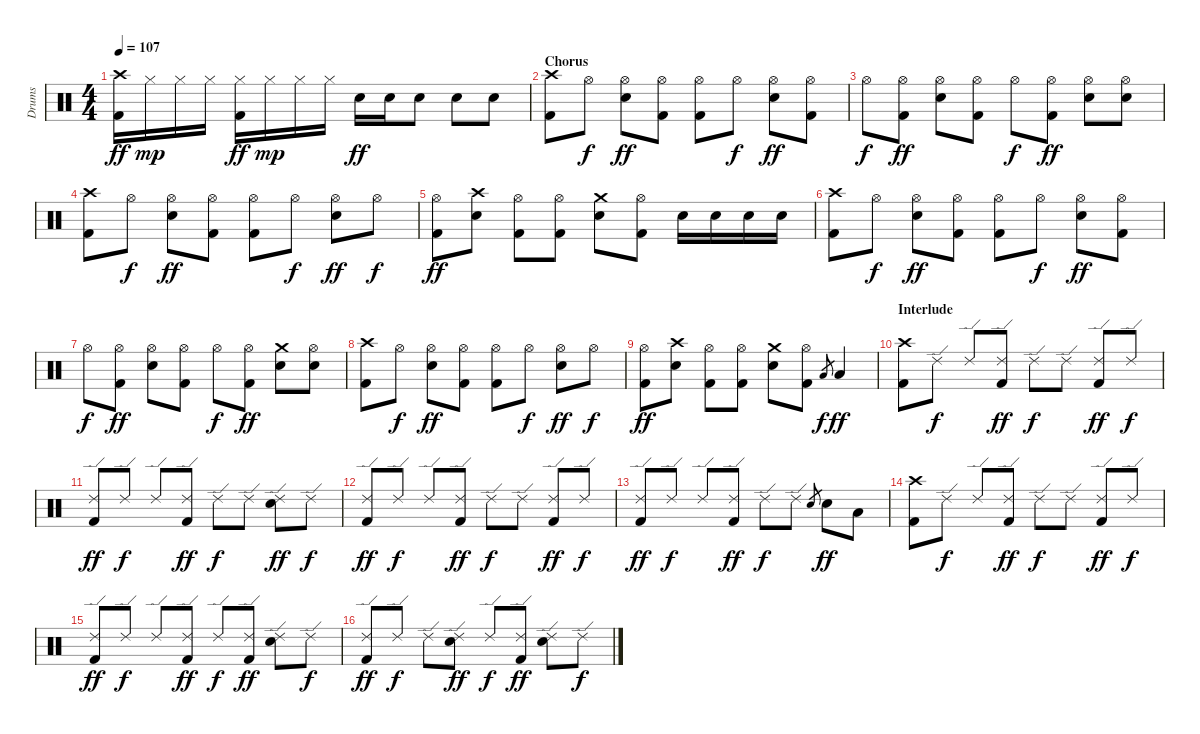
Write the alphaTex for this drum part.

\track ("Drums" "Drums") {instrument percussion}
\staff {score}
\articulation defaults
\ts (4 4)
\tempo 107
\clef neutral
\ks c
("Crash high (hit)" "Kick (hit) 2").16{dy ff} "Hi-Hat (closed)".16{dy mp} "Hi-Hat (closed)".16 "Hi-Hat (closed)".16 ("Hi-Hat (closed)" "Kick (hit) 2").16{dy ff} "Hi-Hat (closed)".16{dy mp} "Hi-Hat (closed)".16 "Hi-Hat (closed)".16 "Snare (hit) 2".16{dy ff} "Snare (hit) 2".16 "Snare (hit) 2".8 "Snare (hit) 2".8 "Snare (hit) 2".8 |
\section ("" "Chorus")
("Crash high (hit)" "Kick (hit) 2").8 "Hi-Hat (open)".8{dy f} ("Hi-Hat (open)" "Snare (hit) 2").8{dy ff} ("Hi-Hat (open)" "Kick (hit) 2").8 ("Hi-Hat (open)" "Kick (hit) 2").8 "Hi-Hat (open)".8{dy f} ("Hi-Hat (open)" "Snare (hit) 2").8{dy ff} ("Hi-Hat (open)" "Kick (hit) 2").8 |
"Hi-Hat (open)".8{dy f} ("Hi-Hat (open)" "Kick (hit) 2").8{dy ff} ("Hi-Hat (open)" "Snare (hit) 2").8 ("Hi-Hat (open)" "Kick (hit) 2").8 "Hi-Hat (open)".8{dy f} ("Hi-Hat (open)" "Kick (hit) 2").8{dy ff} ("Hi-Hat (open)" "Snare (hit) 2").8 ("Hi-Hat (open)" "Snare (hit) 2").8 |
("Crash high (hit)" "Kick (hit) 2").8 "Hi-Hat (open)".8{dy f} ("Hi-Hat (open)" "Snare (hit) 2").8{dy ff} ("Hi-Hat (open)" "Kick (hit) 2").8 ("Hi-Hat (open)" "Kick (hit) 2").8 "Hi-Hat (open)".8{dy f} ("Hi-Hat (open)" "Snare (hit) 2").8{dy ff} "Hi-Hat (open)".8{dy f} |
("Hi-Hat (open)" "Kick (hit) 2").8{dy ff} ("Crash high (hit)" "Snare (hit) 2").8 ("Hi-Hat (open)" "Kick (hit) 2").8 ("Hi-Hat (open)" "Kick (hit) 2").8 ("Crash medium (hit)" "Snare (hit) 2").8 ("Hi-Hat (open)" "Kick (hit) 2").8 "Snare (hit) 2".16 "Snare (hit) 2".16 "Snare (hit) 2".16 "Snare (hit) 2".16 |
("Crash high (hit)" "Kick (hit) 2").8 "Hi-Hat (open)".8{dy f} ("Hi-Hat (open)" "Snare (hit) 2").8{dy ff} ("Hi-Hat (open)" "Kick (hit) 2").8 ("Hi-Hat (open)" "Kick (hit) 2").8 "Hi-Hat (open)".8{dy f} ("Hi-Hat (open)" "Snare (hit) 2").8{dy ff} ("Hi-Hat (open)" "Kick (hit) 2").8 |
"Hi-Hat (open)".8{dy f} ("Hi-Hat (open)" "Kick (hit) 2").8{dy ff} ("Hi-Hat (open)" "Snare (hit) 2").8 ("Hi-Hat (open)" "Kick (hit) 2").8 "Hi-Hat (open)".8{dy f} ("Hi-Hat (open)" "Kick (hit) 2").8{dy ff} ("Crash medium (hit)" "Snare (hit) 2").8 ("Hi-Hat (open)" "Snare (hit) 2").8 |
("Crash high (hit)" "Kick (hit) 2").8 "Hi-Hat (open)".8{dy f} ("Hi-Hat (open)" "Snare (hit) 2").8{dy ff} ("Hi-Hat (open)" "Kick (hit) 2").8 ("Hi-Hat (open)" "Kick (hit) 2").8 "Hi-Hat (open)".8{dy f} ("Hi-Hat (open)" "Snare (hit) 2").8{dy ff} "Hi-Hat (open)".8{dy f} |
("Hi-Hat (open)" "Kick (hit) 2").8{dy ff} ("Crash high (hit)" "Snare (hit) 2").8 ("Hi-Hat (open)" "Kick (hit) 2").8 ("Hi-Hat (open)" "Kick (hit) 2").8 ("Crash medium (hit)" "Snare (hit) 2").8 ("Hi-Hat (open)" "Kick (hit) 2").8 "Low Tom (hit)".8{gr dy f} "Low Tom (hit)".4{dy ff} |
\section ("" "Interlude")
("Crash high (hit)" "Kick (hit) 2").8 "Ride (edge) 2".8{dy f} "Ride (edge) 2".8 ("Ride (edge) 2" "Kick (hit) 2").8{dy ff} "Ride (edge) 2".8{dy f} "Ride (edge) 2".8 ("Ride (edge) 2" "Kick (hit) 2").8{dy ff} "Ride (edge) 2".8{dy f} |
("Ride (edge) 2" "Kick (hit) 2").8{dy ff} "Ride (edge) 2".8{dy f} "Ride (edge) 2".8 ("Ride (edge) 2" "Kick (hit) 2").8{dy ff} "Ride (edge) 2".8{dy f} "Ride (edge) 2".8 ("Ride (edge) 2" "Snare (hit) 2").8{dy ff} "Ride (edge) 2".8{dy f} |
("Ride (edge) 2" "Kick (hit) 2").8{dy ff} "Ride (edge) 2".8{dy f} "Ride (edge) 2".8 ("Ride (edge) 2" "Kick (hit) 2").8{dy ff} "Ride (edge) 2".8{dy f} "Ride (edge) 2".8 ("Ride (edge) 2" "Kick (hit) 2").8{dy ff} "Ride (edge) 2".8{dy f} |
("Ride (edge) 2" "Kick (hit) 2").8{dy ff} "Ride (edge) 2".8{dy f} "Ride (edge) 2".8 ("Ride (edge) 2" "Kick (hit) 2").8{dy ff} "Ride (edge) 2".8{dy f} "Ride (edge) 2".8 "Snare (hit) 2".8{gr} "Snare (hit) 2".8{dy ff} "Low Tom (hit)".8 |
("Crash high (hit)" "Kick (hit) 2").8 "Ride (edge) 2".8{dy f} "Ride (edge) 2".8 ("Ride (edge) 2" "Kick (hit) 2").8{dy ff} "Ride (edge) 2".8{dy f} "Ride (edge) 2".8 ("Ride (edge) 2" "Kick (hit) 2").8{dy ff} "Ride (edge) 2".8{dy f} |
("Ride (edge) 2" "Kick (hit) 2").8{dy ff} "Ride (edge) 2".8{dy f} "Ride (edge) 2".8 ("Ride (edge) 2" "Kick (hit) 2").8{dy ff} "Ride (edge) 2".8{dy f} ("Ride (edge) 2" "Kick (hit) 2").8{dy ff} ("Ride (edge) 2" "Snare (hit) 2").8 "Ride (edge) 2".8{dy f} |
("Ride (edge) 2" "Kick (hit) 2").8{dy ff} "Ride (edge) 2".8{dy f} "Ride (edge) 2".8 ("Ride (edge) 2" "Snare (hit) 2").8{dy ff} "Ride (edge) 2".8{dy f} ("Ride (edge) 2" "Kick (hit) 2").8{dy ff} ("Ride (edge) 2" "Snare (hit) 2").8 "Ride (edge) 2".8{dy f}
